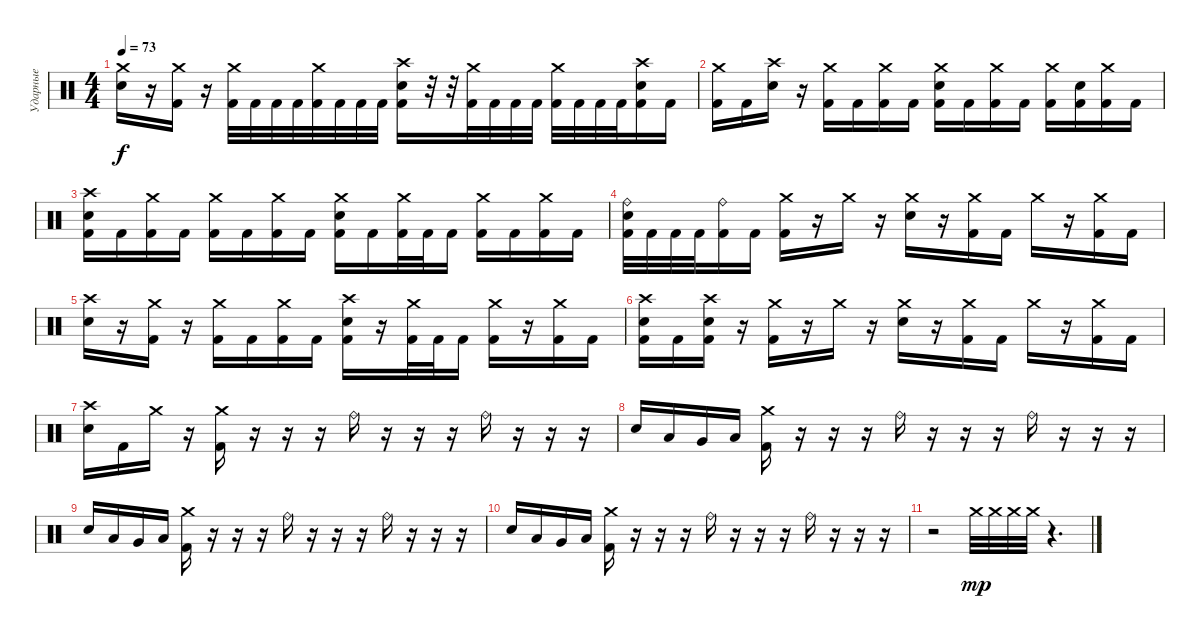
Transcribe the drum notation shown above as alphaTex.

\track ("Ударные" "Ударные") {instrument percussion}
\staff {score}
\articulation defaults
\ts (4 4)
\tempo 73
\clef neutral
\ks c
("Crash medium (hit)" "Electric Snare (hit)").16{dy f} r.16 ("Crash medium (hit)" "Kick (hit) 2").16 r.16 ("Crash medium (hit)" "Kick (hit) 2").32 "Kick (hit) 2".32 "Kick (hit) 2".32 "Kick (hit) 2".32 ("Crash medium (hit)" "Kick (hit) 2").32 "Kick (hit) 2".32 "Kick (hit) 2".32 "Kick (hit) 2".32 ("Crash high (hit)" "Electric Snare (hit)" "Kick (hit) 2").16 r.32 r.32 ("Crash medium (hit)" "Kick (hit) 2").32 "Kick (hit) 2".32 "Kick (hit) 2".32 "Kick (hit) 2".32 ("Crash medium (hit)" "Kick (hit) 2").32 "Kick (hit) 2".32 "Kick (hit) 2".32 "Kick (hit) 2".32 ("Crash high (hit)" "Electric Snare (hit)" "Kick (hit) 2").16 "Kick (hit) 2".16 |
("Crash medium (hit)" "Kick (hit) 2").16 "Kick (hit) 2".16 ("Crash high (hit)" "Electric Snare (hit)").16 r.16 ("Crash medium (hit)" "Kick (hit) 2").16 "Kick (hit) 2".16 ("Crash medium (hit)" "Kick (hit) 2").16 "Kick (hit) 2".16 ("Crash medium (hit)" "Electric Snare (hit)" "Kick (hit) 2").16 "Kick (hit) 2".16 ("Crash medium (hit)" "Kick (hit) 2").16 "Kick (hit) 2".16 ("Crash medium (hit)" "Kick (hit) 2").16 ("Electric Snare (hit)" "Kick (hit) 2").16 ("Crash medium (hit)" "Kick (hit) 2").16 "Kick (hit) 2".16 |
("Crash high (hit)" "Electric Snare (hit)" "Kick (hit) 2").16 "Kick (hit) 2".16 ("Crash medium (hit)" "Kick (hit) 2").16 "Kick (hit) 2".16 ("Crash medium (hit)" "Kick (hit) 2").16 "Kick (hit) 2".16 ("Crash medium (hit)" "Kick (hit) 2").16 "Kick (hit) 2".16 ("Crash medium (hit)" "Electric Snare (hit)" "Kick (hit) 2").16 "Kick (hit) 2".16 ("Crash medium (hit)" "Kick (hit) 2").32 "Kick (hit) 2".32 "Kick (hit) 2".16 ("Crash medium (hit)" "Kick (hit) 2").16 "Kick (hit) 2".16 ("Crash medium (hit)" "Kick (hit) 2").16 "Kick (hit) 2".16 |
("Ride (bell)" "Electric Snare (hit)" "Kick (hit) 2").32 "Kick (hit) 2".32 "Kick (hit) 2".32 "Kick (hit) 2".32 ("Ride (bell)" "Kick (hit) 2").16 "Kick (hit) 2".16 ("Crash medium (hit)" "Kick (hit) 2").16 r.16 "Crash medium (hit)".16 r.16 ("Crash medium (hit)" "Electric Snare (hit)").16 r.16 ("Crash medium (hit)" "Kick (hit) 2").16 "Kick (hit) 2".16 "Crash medium (hit)".16 r.16 ("Crash medium (hit)" "Kick (hit) 2").16 "Kick (hit) 2".16 |
("Crash high (hit)" "Electric Snare (hit)").16 r.16 ("Crash medium (hit)" "Kick (hit) 2").16 r.16 ("Crash medium (hit)" "Kick (hit) 2").16 "Kick (hit) 2".16 ("Crash medium (hit)" "Kick (hit) 2").16 "Kick (hit) 2".16 ("Crash high (hit)" "Electric Snare (hit)" "Kick (hit) 2").16 r.16 ("Crash medium (hit)" "Kick (hit) 2").32 "Kick (hit) 2".32 "Kick (hit) 2".16 ("Crash medium (hit)" "Kick (hit) 2").16 r.16 ("Crash medium (hit)" "Kick (hit) 2").16 "Kick (hit) 2".16 |
("Crash high (hit)" "Electric Snare (hit)" "Kick (hit) 2").16 "Kick (hit) 2".16 ("Crash high (hit)" "Electric Snare (hit)" "Kick (hit) 2").16 r.16 ("Crash medium (hit)" "Kick (hit) 2").16 r.16 "Crash medium (hit)".16 r.16 ("Crash medium (hit)" "Electric Snare (hit)").16 r.16 ("Crash medium (hit)" "Kick (hit) 2").16 "Kick (hit) 2".16 "Crash medium (hit)".16 r.16 ("Crash medium (hit)" "Kick (hit) 2").16 "Kick (hit) 2".16 |
("Crash high (hit)" "Electric Snare (hit)").16 "Kick (hit) 2".16 "Crash medium (hit)".16 r.16 ("Crash medium (hit)" "Kick (hit) 2").16 r.16 r.16 r.16 "Ride (bell)".16 r.16 r.16 r.16 "Ride (bell)".16 r.16 r.16 r.16 |
"Electric Snare (hit)".16 "Low Tom (hit)".16 "Very Low Tom (hit)".16 "Low Floor Tom (hit)".16 ("Crash medium (hit)" "Kick (hit) 2").16 r.16 r.16 r.16 "Ride (bell)".16 r.16 r.16 r.16 "Ride (bell)".16 r.16 r.16 r.16 |
"Electric Snare (hit)".16 "Low Tom (hit)".16 "Very Low Tom (hit)".16 "Low Floor Tom (hit)".16 ("Crash medium (hit)" "Kick (hit) 2").16 r.16 r.16 r.16 "Ride (bell)".16 r.16 r.16 r.16 "Ride (bell)".16 r.16 r.16 r.16 |
"Electric Snare (hit)".16 "Low Tom (hit)".16 "Very Low Tom (hit)".16 "Low Floor Tom (hit)".16 ("Crash medium (hit)" "Kick (hit) 2").16 r.16 r.16 r.16 "Ride (bell)".16 r.16 r.16 r.16 "Ride (bell)".16 r.16 r.16 r.16 |
r.2 "Crash medium (hit)".32{dy mp} "Crash medium (hit)".32 "Crash medium (hit)".32 "Crash medium (hit)".32 r.4{d}
